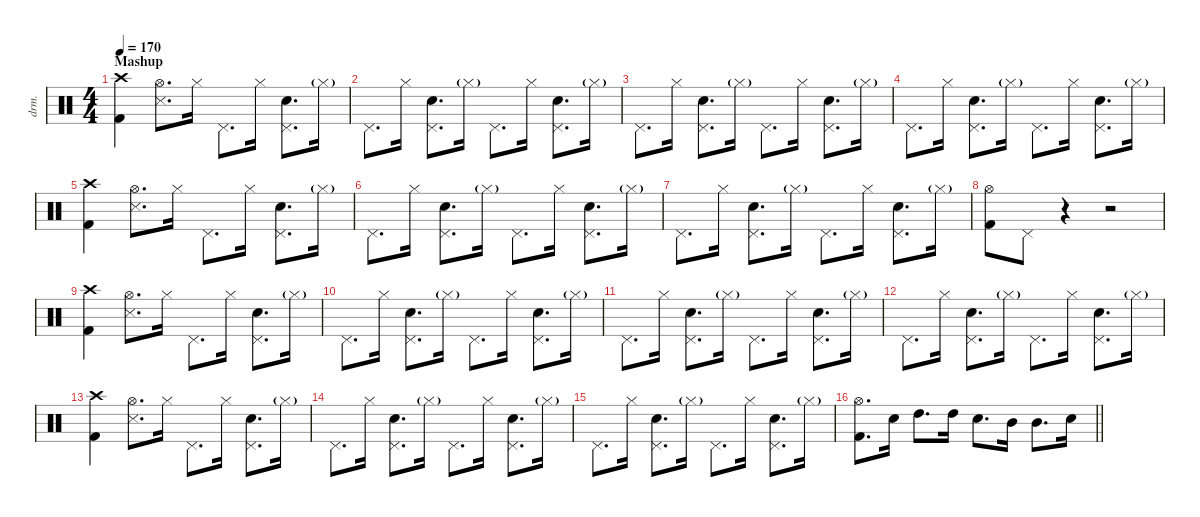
\defaultSystemsLayout 4
\hideDynamics
\useSystemSignSeparator
\otherSystemsTrackNameOrientation horizontal
\extendBarLines
\track ("Drums" "drm.") {instrument percussion}
\staff {score}
\articulation defaults
\ts (4 4)
\section ("" "Mashup")
\tempo 170
\clef neutral
\ks c
("Crash high (hit)" "Kick (hit) 2").4{dy f beam Down} ("Hi-Hat (open)" "Snare (side stick) 3").8{d beam Down} "Hi-Hat (closed)".16{beam Down} "Pedal Hi-Hat (hit)".8{d beam Down} "Hi-Hat (closed)".16{beam Down} ("Pedal Hi-Hat (hit)" "Snare (hit) 2").8{d beam Down} "Hi-Hat (closed)"{g}.16{dy mf beam Down} |
"Pedal Hi-Hat (hit)".8{d dy f beam Down} "Hi-Hat (closed)".16{beam Down} ("Pedal Hi-Hat (hit)" "Snare (hit) 2").8{d beam Down} "Hi-Hat (closed)"{g}.16{dy mf beam Down} "Pedal Hi-Hat (hit)".8{d dy f beam Down} "Hi-Hat (closed)".16{beam Down} ("Pedal Hi-Hat (hit)" "Snare (hit) 2").8{d beam Down} "Hi-Hat (closed)"{g}.16{dy mf beam Down} |
"Pedal Hi-Hat (hit)".8{d dy f beam Down} "Hi-Hat (closed)".16{beam Down} ("Pedal Hi-Hat (hit)" "Snare (hit) 2").8{d beam Down} "Hi-Hat (closed)"{g}.16{dy mf beam Down} "Pedal Hi-Hat (hit)".8{d dy f beam Down} "Hi-Hat (closed)".16{beam Down} ("Pedal Hi-Hat (hit)" "Snare (hit) 2").8{d beam Down} "Hi-Hat (closed)"{g}.16{dy mf beam Down} |
"Pedal Hi-Hat (hit)".8{d dy f beam Down} "Hi-Hat (closed)".16{beam Down} ("Pedal Hi-Hat (hit)" "Snare (hit) 2").8{d beam Down} "Hi-Hat (closed)"{g}.16{dy mf beam Down} "Pedal Hi-Hat (hit)".8{d dy f beam Down} "Hi-Hat (closed)".16{beam Down} ("Pedal Hi-Hat (hit)" "Snare (hit) 2").8{d beam Down} "Hi-Hat (closed)"{g}.16{dy mf beam Down} |
("Crash high (hit)" "Kick (hit) 2").4{dy f beam Down} ("Hi-Hat (open)" "Snare (side stick) 3").8{d beam Down} "Hi-Hat (closed)".16{beam Down} "Pedal Hi-Hat (hit)".8{d beam Down} "Hi-Hat (closed)".16{beam Down} ("Pedal Hi-Hat (hit)" "Snare (hit) 2").8{d beam Down} "Hi-Hat (closed)"{g}.16{dy mf beam Down} |
"Pedal Hi-Hat (hit)".8{d dy f beam Down} "Hi-Hat (closed)".16{beam Down} ("Pedal Hi-Hat (hit)" "Snare (hit) 2").8{d beam Down} "Hi-Hat (closed)"{g}.16{dy mf beam Down} "Pedal Hi-Hat (hit)".8{d dy f beam Down} "Hi-Hat (closed)".16{beam Down} ("Pedal Hi-Hat (hit)" "Snare (hit) 2").8{d beam Down} "Hi-Hat (closed)"{g}.16{dy mf beam Down} |
"Pedal Hi-Hat (hit)".8{d dy f beam Down} "Hi-Hat (closed)".16{beam Down} ("Pedal Hi-Hat (hit)" "Snare (hit) 2").8{d beam Down} "Hi-Hat (closed)"{g}.16{dy mf beam Down} "Pedal Hi-Hat (hit)".8{d dy f beam Down} "Hi-Hat (closed)".16{beam Down} ("Pedal Hi-Hat (hit)" "Snare (hit) 2").8{d beam Down} "Hi-Hat (closed)"{g}.16{dy mf beam Down} |
("Hi-Hat (open)" "Kick (hit) 2").8{dy f beam Down} "Pedal Hi-Hat (hit)".8{beam Down} r.4{beam Down} r.2{beam Down} |
("Crash high (hit)" "Kick (hit) 2").4{beam Down} ("Hi-Hat (open)" "Snare (side stick) 3").8{d beam Down} "Hi-Hat (closed)".16{beam Down} "Pedal Hi-Hat (hit)".8{d beam Down} "Hi-Hat (closed)".16{beam Down} ("Pedal Hi-Hat (hit)" "Snare (hit) 2").8{d beam Down} "Hi-Hat (closed)"{g}.16{dy mf beam Down} |
"Pedal Hi-Hat (hit)".8{d dy f beam Down} "Hi-Hat (closed)".16{beam Down} ("Pedal Hi-Hat (hit)" "Snare (hit) 2").8{d beam Down} "Hi-Hat (closed)"{g}.16{dy mf beam Down} "Pedal Hi-Hat (hit)".8{d dy f beam Down} "Hi-Hat (closed)".16{beam Down} ("Pedal Hi-Hat (hit)" "Snare (hit) 2").8{d beam Down} "Hi-Hat (closed)"{g}.16{dy mf beam Down} |
"Pedal Hi-Hat (hit)".8{d dy f beam Down} "Hi-Hat (closed)".16{beam Down} ("Pedal Hi-Hat (hit)" "Snare (hit) 2").8{d beam Down} "Hi-Hat (closed)"{g}.16{dy mf beam Down} "Pedal Hi-Hat (hit)".8{d dy f beam Down} "Hi-Hat (closed)".16{beam Down} ("Pedal Hi-Hat (hit)" "Snare (hit) 2").8{d beam Down} "Hi-Hat (closed)"{g}.16{dy mf beam Down} |
"Pedal Hi-Hat (hit)".8{d dy f beam Down} "Hi-Hat (closed)".16{beam Down} ("Pedal Hi-Hat (hit)" "Snare (hit) 2").8{d beam Down} "Hi-Hat (closed)"{g}.16{dy mf beam Down} "Pedal Hi-Hat (hit)".8{d dy f beam Down} "Hi-Hat (closed)".16{beam Down} ("Pedal Hi-Hat (hit)" "Snare (hit) 2").8{d beam Down} "Hi-Hat (closed)"{g}.16{dy mf beam Down} |
("Crash high (hit)" "Kick (hit) 2").4{dy f beam Down} ("Hi-Hat (open)" "Snare (side stick) 3").8{d beam Down} "Hi-Hat (closed)".16{beam Down} "Pedal Hi-Hat (hit)".8{d beam Down} "Hi-Hat (closed)".16{beam Down} ("Pedal Hi-Hat (hit)" "Snare (hit) 2").8{d beam Down} "Hi-Hat (closed)"{g}.16{dy mf beam Down} |
"Pedal Hi-Hat (hit)".8{d dy f beam Down} "Hi-Hat (closed)".16{beam Down} ("Pedal Hi-Hat (hit)" "Snare (hit) 2").8{d beam Down} "Hi-Hat (closed)"{g}.16{dy mf beam Down} "Pedal Hi-Hat (hit)".8{d dy f beam Down} "Hi-Hat (closed)".16{beam Down} ("Pedal Hi-Hat (hit)" "Snare (hit) 2").8{d beam Down} "Hi-Hat (closed)"{g}.16{dy mf beam Down} |
"Pedal Hi-Hat (hit)".8{d dy f beam Down} "Hi-Hat (closed)".16{beam Down} ("Pedal Hi-Hat (hit)" "Snare (hit) 2").8{d beam Down} "Hi-Hat (closed)"{g}.16{dy mf beam Down} "Pedal Hi-Hat (hit)".8{d dy f beam Down} "Hi-Hat (closed)".16{beam Down} ("Pedal Hi-Hat (hit)" "Snare (hit) 2").8{d beam Down} "Hi-Hat (closed)"{g}.16{dy mf beam Down} |
\barLineRight lightlight
("Hi-Hat (open)" "Kick (hit) 2").8{d dy f beam Down} "Snare (hit) 2".16{beam Down} "High Tom (hit)".8{d beam Down} "High Tom (hit)".16{beam Down} "Snare (hit) 2".8{d beam Down} "Mid Tom (hit)".16{beam Down} "Mid Tom (hit)".8{d beam Down} "Snare (hit) 2".16{beam Down}
